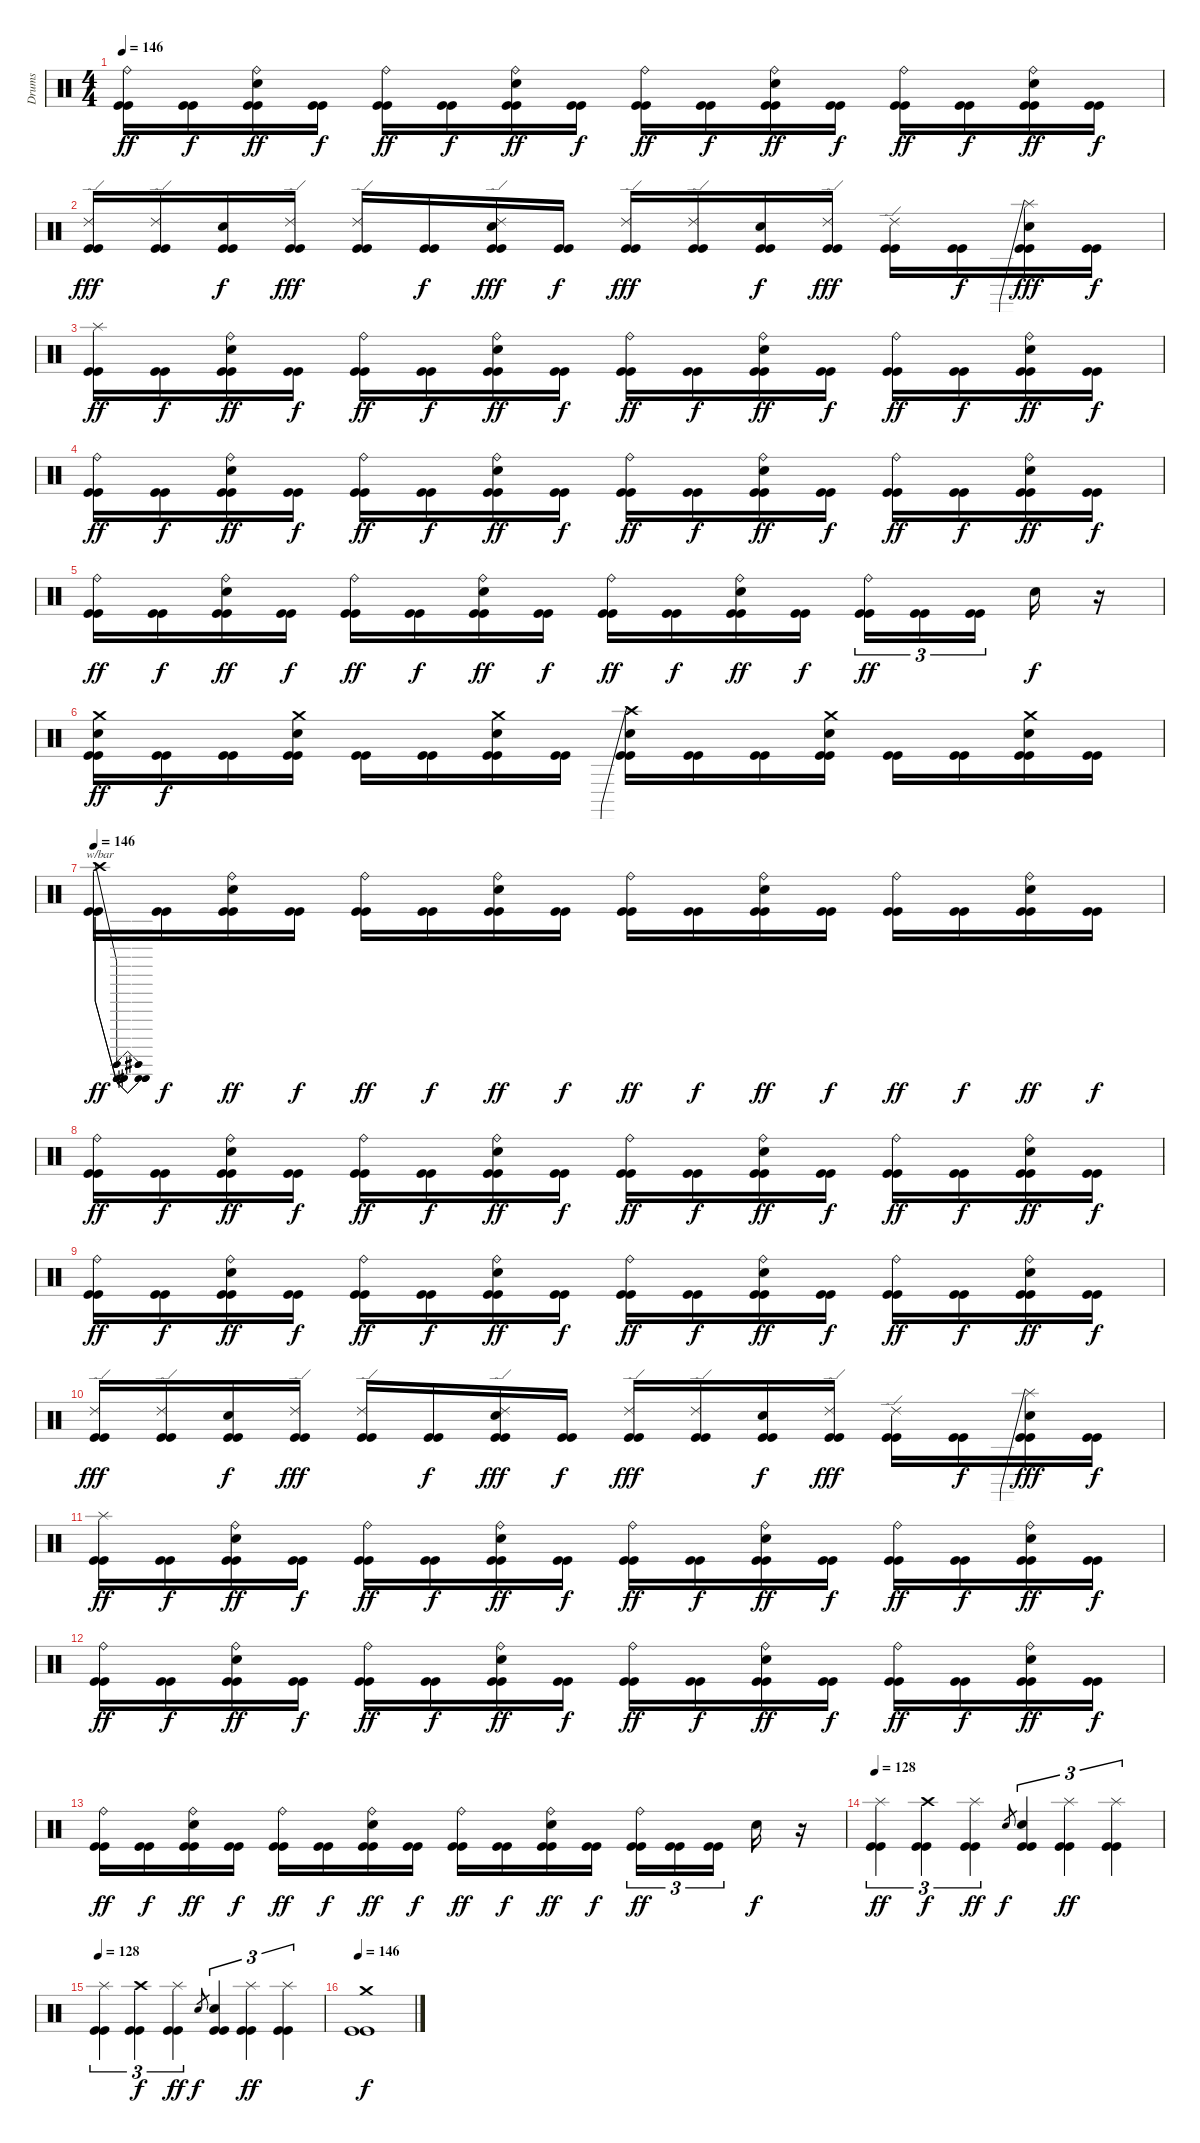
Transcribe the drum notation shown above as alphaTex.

\track ("Drums" "Drums") {instrument percussion}
\staff {score}
\articulation defaults
\ts (4 4)
\tempo 146
\clef neutral
\ks c
("Ride (bell)" "Kick (hit)" "Kick (hit)").16{dy ff} ("Kick (hit)" "Kick (hit)").16{dy f} ("Ride (bell)" "Electric Snare (hit)" "Kick (hit)" "Kick (hit)").16{dy ff} ("Kick (hit)" "Kick (hit)").16{dy f} ("Ride (bell)" "Kick (hit)" "Kick (hit)").16{dy ff} ("Kick (hit)" "Kick (hit)").16{dy f} ("Ride (bell)" "Electric Snare (hit)" "Kick (hit)" "Kick (hit)").16{dy ff} ("Kick (hit)" "Kick (hit)").16{dy f} ("Ride (bell)" "Kick (hit)" "Kick (hit)").16{dy ff} ("Kick (hit)" "Kick (hit)").16{dy f} ("Ride (bell)" "Electric Snare (hit)" "Kick (hit)" "Kick (hit)").16{dy ff} ("Kick (hit)" "Kick (hit)").16{dy f} ("Ride (bell)" "Kick (hit)" "Kick (hit)").16{dy ff} ("Kick (hit)" "Kick (hit)").16{dy f} ("Ride (bell)" "Electric Snare (hit)" "Kick (hit)" "Kick (hit)").16{dy ff} ("Kick (hit)" "Kick (hit)").16{dy f} |
("Ride (edge) 2" "Kick (hit)" "Kick (hit)").16{dy fff} ("Ride (edge) 2" "Kick (hit)" "Kick (hit)").16 ("Electric Snare (hit)" "Kick (hit)" "Kick (hit)").16{dy f} ("Ride (edge) 2" "Kick (hit)" "Kick (hit)").16{dy fff} ("Ride (edge) 2" "Kick (hit)" "Kick (hit)").16 ("Kick (hit)" "Kick (hit)").16{dy f} ("Ride (edge) 2" "Electric Snare (hit)" "Kick (hit)" "Kick (hit)").16{dy fff} ("Kick (hit)" "Kick (hit)").16{dy f} ("Ride (edge) 2" "Kick (hit)" "Kick (hit)").16{dy fff} ("Ride (edge) 2" "Kick (hit)" "Kick (hit)").16 ("Electric Snare (hit)" "Kick (hit)" "Kick (hit)").16{dy f} ("Ride (edge) 2" "Kick (hit)" "Kick (hit)").16{dy fff} ("Ride (edge) 2" "Kick (hit)" "Kick (hit)").16 ("Kick (hit)" "Kick (hit)").16{dy f} ("Splash (hit)"{be (prebend 0 3 60 3)} "Electric Snare (hit)" "Kick (hit)" "Kick (hit)").16{dy fff} ("Kick (hit)" "Kick (hit)").16{dy f} |
("Splash (hit)" "Kick (hit)" "Kick (hit)").16{dy ff} ("Kick (hit)" "Kick (hit)").16{dy f} ("Ride (bell)" "Electric Snare (hit)" "Kick (hit)" "Kick (hit)").16{dy ff} ("Kick (hit)" "Kick (hit)").16{dy f} ("Ride (bell)" "Kick (hit)" "Kick (hit)").16{dy ff} ("Kick (hit)" "Kick (hit)").16{dy f} ("Ride (bell)" "Electric Snare (hit)" "Kick (hit)" "Kick (hit)").16{dy ff} ("Kick (hit)" "Kick (hit)").16{dy f} ("Ride (bell)" "Kick (hit)" "Kick (hit)").16{dy ff} ("Kick (hit)" "Kick (hit)").16{dy f} ("Ride (bell)" "Electric Snare (hit)" "Kick (hit)" "Kick (hit)").16{dy ff} ("Kick (hit)" "Kick (hit)").16{dy f} ("Ride (bell)" "Kick (hit)" "Kick (hit)").16{dy ff} ("Kick (hit)" "Kick (hit)").16{dy f} ("Ride (bell)" "Electric Snare (hit)" "Kick (hit)" "Kick (hit)").16{dy ff} ("Kick (hit)" "Kick (hit)").16{dy f} |
("Ride (bell)" "Kick (hit)" "Kick (hit)").16{dy ff} ("Kick (hit)" "Kick (hit)").16{dy f} ("Ride (bell)" "Electric Snare (hit)" "Kick (hit)" "Kick (hit)").16{dy ff} ("Kick (hit)" "Kick (hit)").16{dy f} ("Ride (bell)" "Kick (hit)" "Kick (hit)").16{dy ff} ("Kick (hit)" "Kick (hit)").16{dy f} ("Ride (bell)" "Electric Snare (hit)" "Kick (hit)" "Kick (hit)").16{dy ff} ("Kick (hit)" "Kick (hit)").16{dy f} ("Ride (bell)" "Kick (hit)" "Kick (hit)").16{dy ff} ("Kick (hit)" "Kick (hit)").16{dy f} ("Ride (bell)" "Electric Snare (hit)" "Kick (hit)" "Kick (hit)").16{dy ff} ("Kick (hit)" "Kick (hit)").16{dy f} ("Ride (bell)" "Kick (hit)" "Kick (hit)").16{dy ff} ("Kick (hit)" "Kick (hit)").16{dy f} ("Ride (bell)" "Electric Snare (hit)" "Kick (hit)" "Kick (hit)").16{dy ff} ("Kick (hit)" "Kick (hit)").16{dy f} |
("Ride (bell)" "Kick (hit)" "Kick (hit)").16{dy ff} ("Kick (hit)" "Kick (hit)").16{dy f} ("Ride (bell)" "Electric Snare (hit)" "Kick (hit)" "Kick (hit)").16{dy ff} ("Kick (hit)" "Kick (hit)").16{dy f} ("Ride (bell)" "Kick (hit)" "Kick (hit)").16{dy ff} ("Kick (hit)" "Kick (hit)").16{dy f} ("Ride (bell)" "Electric Snare (hit)" "Kick (hit)" "Kick (hit)").16{dy ff} ("Kick (hit)" "Kick (hit)").16{dy f} ("Ride (bell)" "Kick (hit)" "Kick (hit)").16{dy ff} ("Kick (hit)" "Kick (hit)").16{dy f} ("Ride (bell)" "Electric Snare (hit)" "Kick (hit)" "Kick (hit)").16{dy ff} ("Kick (hit)" "Kick (hit)").16{dy f} ("Ride (bell)" "Kick (hit)" "Kick (hit)").16{tu (3 2) dy ff} ("Kick (hit)" "Kick (hit)").16{tu (3 2)} ("Kick (hit)" "Kick (hit)").16{tu (3 2)} "Electric Snare (hit)".16{dy f} r.16 |
("Crash medium (hit)" "Electric Snare (hit)" "Kick (hit)" "Kick (hit)").16{dy ff} ("Kick (hit)" "Kick (hit)").16{dy f} ("Kick (hit)" "Kick (hit)").16 ("Crash medium (hit)" "Electric Snare (hit)" "Kick (hit)" "Kick (hit)").16 ("Kick (hit)" "Kick (hit)").16 ("Kick (hit)" "Kick (hit)").16 ("Crash medium (hit)" "Electric Snare (hit)" "Kick (hit)" "Kick (hit)").16 ("Kick (hit)" "Kick (hit)").16 ("Crash high (hit)"{be (prebend 0 2 60 2)} "Electric Snare (hit)" "Kick (hit)" "Kick (hit)").16 ("Kick (hit)" "Kick (hit)").16 ("Kick (hit)" "Kick (hit)").16 ("Crash medium (hit)" "Electric Snare (hit)" "Kick (hit)" "Kick (hit)").16 ("Kick (hit)" "Kick (hit)").16 ("Kick (hit)" "Kick (hit)").16 ("Crash medium (hit)" "Electric Snare (hit)" "Kick (hit)" "Kick (hit)").16 ("Kick (hit)" "Kick (hit)").16 |
\tempo 146
("Crash high (hit)" "Kick (hit)" "Kick (hit)").16{tbe (dip default 0 0 30 -2 60 0) dy ff} ("Kick (hit)" "Kick (hit)").16{dy f} ("Ride (bell)" "Electric Snare (hit)" "Kick (hit)" "Kick (hit)").16{dy ff} ("Kick (hit)" "Kick (hit)").16{dy f} ("Ride (bell)" "Kick (hit)" "Kick (hit)").16{dy ff} ("Kick (hit)" "Kick (hit)").16{dy f} ("Ride (bell)" "Electric Snare (hit)" "Kick (hit)" "Kick (hit)").16{dy ff} ("Kick (hit)" "Kick (hit)").16{dy f} ("Ride (bell)" "Kick (hit)" "Kick (hit)").16{dy ff} ("Kick (hit)" "Kick (hit)").16{dy f} ("Ride (bell)" "Electric Snare (hit)" "Kick (hit)" "Kick (hit)").16{dy ff} ("Kick (hit)" "Kick (hit)").16{dy f} ("Ride (bell)" "Kick (hit)" "Kick (hit)").16{dy ff} ("Kick (hit)" "Kick (hit)").16{dy f} ("Ride (bell)" "Electric Snare (hit)" "Kick (hit)" "Kick (hit)").16{dy ff} ("Kick (hit)" "Kick (hit)").16{dy f} |
("Ride (bell)" "Kick (hit)" "Kick (hit)").16{dy ff} ("Kick (hit)" "Kick (hit)").16{dy f} ("Ride (bell)" "Electric Snare (hit)" "Kick (hit)" "Kick (hit)").16{dy ff} ("Kick (hit)" "Kick (hit)").16{dy f} ("Ride (bell)" "Kick (hit)" "Kick (hit)").16{dy ff} ("Kick (hit)" "Kick (hit)").16{dy f} ("Ride (bell)" "Electric Snare (hit)" "Kick (hit)" "Kick (hit)").16{dy ff} ("Kick (hit)" "Kick (hit)").16{dy f} ("Ride (bell)" "Kick (hit)" "Kick (hit)").16{dy ff} ("Kick (hit)" "Kick (hit)").16{dy f} ("Ride (bell)" "Electric Snare (hit)" "Kick (hit)" "Kick (hit)").16{dy ff} ("Kick (hit)" "Kick (hit)").16{dy f} ("Ride (bell)" "Kick (hit)" "Kick (hit)").16{dy ff} ("Kick (hit)" "Kick (hit)").16{dy f} ("Ride (bell)" "Electric Snare (hit)" "Kick (hit)" "Kick (hit)").16{dy ff} ("Kick (hit)" "Kick (hit)").16{dy f} |
("Ride (bell)" "Kick (hit)" "Kick (hit)").16{dy ff} ("Kick (hit)" "Kick (hit)").16{dy f} ("Ride (bell)" "Electric Snare (hit)" "Kick (hit)" "Kick (hit)").16{dy ff} ("Kick (hit)" "Kick (hit)").16{dy f} ("Ride (bell)" "Kick (hit)" "Kick (hit)").16{dy ff} ("Kick (hit)" "Kick (hit)").16{dy f} ("Ride (bell)" "Electric Snare (hit)" "Kick (hit)" "Kick (hit)").16{dy ff} ("Kick (hit)" "Kick (hit)").16{dy f} ("Ride (bell)" "Kick (hit)" "Kick (hit)").16{dy ff} ("Kick (hit)" "Kick (hit)").16{dy f} ("Ride (bell)" "Electric Snare (hit)" "Kick (hit)" "Kick (hit)").16{dy ff} ("Kick (hit)" "Kick (hit)").16{dy f} ("Ride (bell)" "Kick (hit)" "Kick (hit)").16{dy ff} ("Kick (hit)" "Kick (hit)").16{dy f} ("Ride (bell)" "Electric Snare (hit)" "Kick (hit)" "Kick (hit)").16{dy ff} ("Kick (hit)" "Kick (hit)").16{dy f} |
("Ride (edge) 2" "Kick (hit)" "Kick (hit)").16{dy fff} ("Ride (edge) 2" "Kick (hit)" "Kick (hit)").16 ("Electric Snare (hit)" "Kick (hit)" "Kick (hit)").16{dy f} ("Ride (edge) 2" "Kick (hit)" "Kick (hit)").16{dy fff} ("Ride (edge) 2" "Kick (hit)" "Kick (hit)").16 ("Kick (hit)" "Kick (hit)").16{dy f} ("Ride (edge) 2" "Electric Snare (hit)" "Kick (hit)" "Kick (hit)").16{dy fff} ("Kick (hit)" "Kick (hit)").16{dy f} ("Ride (edge) 2" "Kick (hit)" "Kick (hit)").16{dy fff} ("Ride (edge) 2" "Kick (hit)" "Kick (hit)").16 ("Electric Snare (hit)" "Kick (hit)" "Kick (hit)").16{dy f} ("Ride (edge) 2" "Kick (hit)" "Kick (hit)").16{dy fff} ("Ride (edge) 2" "Kick (hit)" "Kick (hit)").16 ("Kick (hit)" "Kick (hit)").16{dy f} ("Splash (hit)"{be (prebend 0 3 60 3)} "Electric Snare (hit)" "Kick (hit)" "Kick (hit)").16{dy fff} ("Kick (hit)" "Kick (hit)").16{dy f} |
("Splash (hit)" "Kick (hit)" "Kick (hit)").16{dy ff} ("Kick (hit)" "Kick (hit)").16{dy f} ("Ride (bell)" "Electric Snare (hit)" "Kick (hit)" "Kick (hit)").16{dy ff} ("Kick (hit)" "Kick (hit)").16{dy f} ("Ride (bell)" "Kick (hit)" "Kick (hit)").16{dy ff} ("Kick (hit)" "Kick (hit)").16{dy f} ("Ride (bell)" "Electric Snare (hit)" "Kick (hit)" "Kick (hit)").16{dy ff} ("Kick (hit)" "Kick (hit)").16{dy f} ("Ride (bell)" "Kick (hit)" "Kick (hit)").16{dy ff} ("Kick (hit)" "Kick (hit)").16{dy f} ("Ride (bell)" "Electric Snare (hit)" "Kick (hit)" "Kick (hit)").16{dy ff} ("Kick (hit)" "Kick (hit)").16{dy f} ("Ride (bell)" "Kick (hit)" "Kick (hit)").16{dy ff} ("Kick (hit)" "Kick (hit)").16{dy f} ("Ride (bell)" "Electric Snare (hit)" "Kick (hit)" "Kick (hit)").16{dy ff} ("Kick (hit)" "Kick (hit)").16{dy f} |
("Ride (bell)" "Kick (hit)" "Kick (hit)").16{dy ff} ("Kick (hit)" "Kick (hit)").16{dy f} ("Ride (bell)" "Electric Snare (hit)" "Kick (hit)" "Kick (hit)").16{dy ff} ("Kick (hit)" "Kick (hit)").16{dy f} ("Ride (bell)" "Kick (hit)" "Kick (hit)").16{dy ff} ("Kick (hit)" "Kick (hit)").16{dy f} ("Ride (bell)" "Electric Snare (hit)" "Kick (hit)" "Kick (hit)").16{dy ff} ("Kick (hit)" "Kick (hit)").16{dy f} ("Ride (bell)" "Kick (hit)" "Kick (hit)").16{dy ff} ("Kick (hit)" "Kick (hit)").16{dy f} ("Ride (bell)" "Electric Snare (hit)" "Kick (hit)" "Kick (hit)").16{dy ff} ("Kick (hit)" "Kick (hit)").16{dy f} ("Ride (bell)" "Kick (hit)" "Kick (hit)").16{dy ff} ("Kick (hit)" "Kick (hit)").16{dy f} ("Ride (bell)" "Electric Snare (hit)" "Kick (hit)" "Kick (hit)").16{dy ff} ("Kick (hit)" "Kick (hit)").16{dy f} |
("Ride (bell)" "Kick (hit)" "Kick (hit)").16{dy ff} ("Kick (hit)" "Kick (hit)").16{dy f} ("Ride (bell)" "Electric Snare (hit)" "Kick (hit)" "Kick (hit)").16{dy ff} ("Kick (hit)" "Kick (hit)").16{dy f} ("Ride (bell)" "Kick (hit)" "Kick (hit)").16{dy ff} ("Kick (hit)" "Kick (hit)").16{dy f} ("Ride (bell)" "Electric Snare (hit)" "Kick (hit)" "Kick (hit)").16{dy ff} ("Kick (hit)" "Kick (hit)").16{dy f} ("Ride (bell)" "Kick (hit)" "Kick (hit)").16{dy ff} ("Kick (hit)" "Kick (hit)").16{dy f} ("Ride (bell)" "Electric Snare (hit)" "Kick (hit)" "Kick (hit)").16{dy ff} ("Kick (hit)" "Kick (hit)").16{dy f} ("Ride (bell)" "Kick (hit)" "Kick (hit)").16{tu (3 2) dy ff} ("Kick (hit)" "Kick (hit)").16{tu (3 2)} ("Kick (hit)" "Kick (hit)").16{tu (3 2)} "Electric Snare (hit)".16{dy f} r.16 |
\tempo 128
("Splash (hit)" "Kick (hit)" "Kick (hit)").4{tu (3 2) dy ff} ("Crash high (hit)" "Kick (hit)" "Kick (hit)").4{tu (3 2) dy f} ("Splash (hit)" "Kick (hit)" "Kick (hit)").4{tu (3 2) dy ff} "Electric Snare (hit)".8{gr dy f} ("Electric Snare (hit)" "Kick (hit)" "Kick (hit)").4{tu (3 2)} ("Splash (hit)" "Kick (hit)" "Kick (hit)").4{tu (3 2) dy ff} ("Splash (hit)" "Kick (hit)" "Kick (hit)").4{tu (3 2)} |
\tempo 128
("Splash (hit)" "Kick (hit)" "Kick (hit)").4{tu (3 2)} ("Crash high (hit)" "Kick (hit)" "Kick (hit)").4{tu (3 2) dy f} ("Splash (hit)" "Kick (hit)" "Kick (hit)").4{tu (3 2) dy ff} "Electric Snare (hit)".8{gr dy f} ("Electric Snare (hit)" "Kick (hit)" "Kick (hit)").4{tu (3 2)} ("Splash (hit)" "Kick (hit)" "Kick (hit)").4{tu (3 2) dy ff} ("Splash (hit)" "Kick (hit)" "Kick (hit)").4{tu (3 2)} |
\tempo 146
("Crash medium (hit)" "Kick (hit)" "Kick (hit)").1{dy f}
